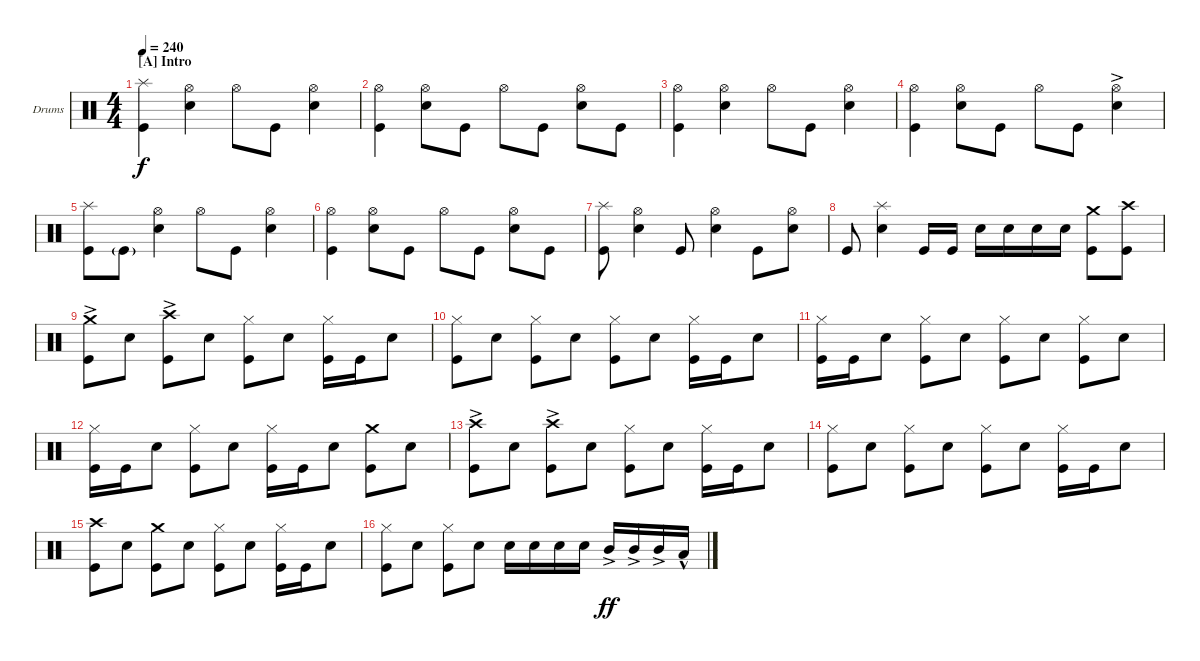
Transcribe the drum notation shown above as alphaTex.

\defaultSystemsLayout 4
\bracketExtendMode groupsimilarinstruments
\firstSystemTrackNameOrientation horizontal
\otherSystemsTrackNameOrientation horizontal
\track ("Drumkit" "Drums") {instrument percussion}
\staff {score}
\articulation defaults
\ts (4 4)
\section ("A" "Intro")
\tempo 240
\clef neutral
\ks c
("Kick (hit)" "Splash (hit)").4{dy f} ("Snare (hit) 2" "Hi-Hat (open)").4 "Hi-Hat (open)".8 "Kick (hit)".8 ("Snare (hit) 2" "Hi-Hat (open)").4 |
("Kick (hit)" "Hi-Hat (open)").4 ("Snare (hit) 2" "Hi-Hat (open)").8 "Kick (hit)".8 "Hi-Hat (open)".8 "Kick (hit)".8 ("Snare (hit) 2" "Hi-Hat (open)").8 "Kick (hit)".8 |
("Kick (hit)" "Hi-Hat (open)").4 ("Snare (hit) 2" "Hi-Hat (open)").4 "Hi-Hat (open)".8 "Kick (hit)".8 ("Snare (hit) 2" "Hi-Hat (open)").4 |
("Kick (hit)" "Hi-Hat (open)").4 ("Snare (hit) 2" "Hi-Hat (open)").8 "Kick (hit)".8 "Hi-Hat (open)".8 "Kick (hit)".8 ("Snare (hit) 2" "Hi-Hat (open)"{ac}).4 |
("Kick (hit)" "Splash (hit)").8 "Kick (hit)"{g}.8 ("Snare (hit) 2" "Hi-Hat (open)").4 "Hi-Hat (open)".8 "Kick (hit)".8 ("Snare (hit) 2" "Hi-Hat (open)").4 |
("Kick (hit)" "Hi-Hat (open)").4 ("Snare (hit) 2" "Hi-Hat (open)").8 "Kick (hit)".8 "Hi-Hat (open)".8 "Kick (hit)".8 ("Snare (hit) 2" "Hi-Hat (open)").8 "Kick (hit)".8 |
("Kick (hit)" "Splash (hit)").8 ("Snare (hit) 2" "Hi-Hat (open)").4 "Kick (hit)".8 ("Snare (hit) 2" "Hi-Hat (open)").4 "Kick (hit)".8 ("Snare (hit) 2" "Hi-Hat (open)").8 |
"Kick (hit)".8 ("Snare (hit) 2" "Splash (hit)").4 "Kick (hit)".16 "Kick (hit)".16 "Snare (hit) 2".16 "Snare (hit) 2".16 "Snare (hit) 2".16 "Snare (hit) 2".16 ("Kick (hit)" "Crash medium (hit)").8 ("Kick (hit)" "Crash high (hit)").8 |
("Kick (hit)" "Crash medium (hit)"{ac}).8 "Snare (hit) 2".8 ("Kick (hit)" "Crash high (hit)"{ac}).8 "Snare (hit) 2".8 ("Kick (hit)" "Hi-Hat (closed)").8 "Snare (hit) 2".8 ("Kick (hit)" "Hi-Hat (closed)").16 "Kick (hit)".16 "Snare (hit) 2".8 |
("Kick (hit)" "Hi-Hat (closed)").8 "Snare (hit) 2".8 ("Kick (hit)" "Hi-Hat (closed)").8 "Snare (hit) 2".8 ("Kick (hit)" "Hi-Hat (closed)").8 "Snare (hit) 2".8 ("Kick (hit)" "Hi-Hat (closed)").16 "Kick (hit)".16 "Snare (hit) 2".8 |
("Kick (hit)" "Hi-Hat (closed)").16 "Kick (hit)".16 "Snare (hit) 2".8 ("Kick (hit)" "Hi-Hat (closed)").8 "Snare (hit) 2".8 ("Kick (hit)" "Hi-Hat (closed)").8 "Snare (hit) 2".8 ("Kick (hit)" "Hi-Hat (closed)").8 "Snare (hit) 2".8 |
("Kick (hit)" "Hi-Hat (closed)").16 "Kick (hit)".16 "Snare (hit) 2".8 ("Kick (hit)" "Hi-Hat (closed)").8 "Snare (hit) 2".8 ("Kick (hit)" "Hi-Hat (closed)").16 "Kick (hit)".16 "Snare (hit) 2".8 ("Kick (hit)" "Crash medium (hit)").8 "Snare (hit) 2".8 |
("Kick (hit)" "Crash high (hit)"{ac}).8 "Snare (hit) 2".8 ("Kick (hit)" "Crash high (hit)"{ac}).8 "Snare (hit) 2".8 ("Kick (hit)" "Hi-Hat (closed)").8 "Snare (hit) 2".8 ("Kick (hit)" "Hi-Hat (closed)").16 "Kick (hit)".16 "Snare (hit) 2".8 |
("Kick (hit)" "Hi-Hat (closed)").8 "Snare (hit) 2".8 ("Kick (hit)" "Hi-Hat (closed)").8 "Snare (hit) 2".8 ("Kick (hit)" "Hi-Hat (closed)").8 "Snare (hit) 2".8 ("Kick (hit)" "Hi-Hat (closed)").16 "Kick (hit)".16 "Snare (hit) 2".8 |
("Kick (hit)" "Crash high (hit)").8 "Snare (hit) 2".8 ("Kick (hit)" "Crash medium (hit)").8 "Snare (hit) 2".8 ("Kick (hit)" "Hi-Hat (closed)").8 "Snare (hit) 2".8 ("Kick (hit)" "Hi-Hat (closed)").16 "Kick (hit)".16 "Snare (hit) 2".8 |
("Kick (hit)" "Hi-Hat (closed)").8 "Snare (hit) 2".8 ("Kick (hit)" "Hi-Hat (closed)").8 "Snare (hit) 2".8 "Snare (hit) 2".16 "Snare (hit) 2".16 "Snare (hit) 2".16 "Snare (hit) 2".16 "Mid Tom (hit)"{ac}.16{dy ff} "Mid Tom (hit)"{ac}.16 "Mid Tom (hit)"{ac}.16 "Low Tom (hit)"{hac}.16
